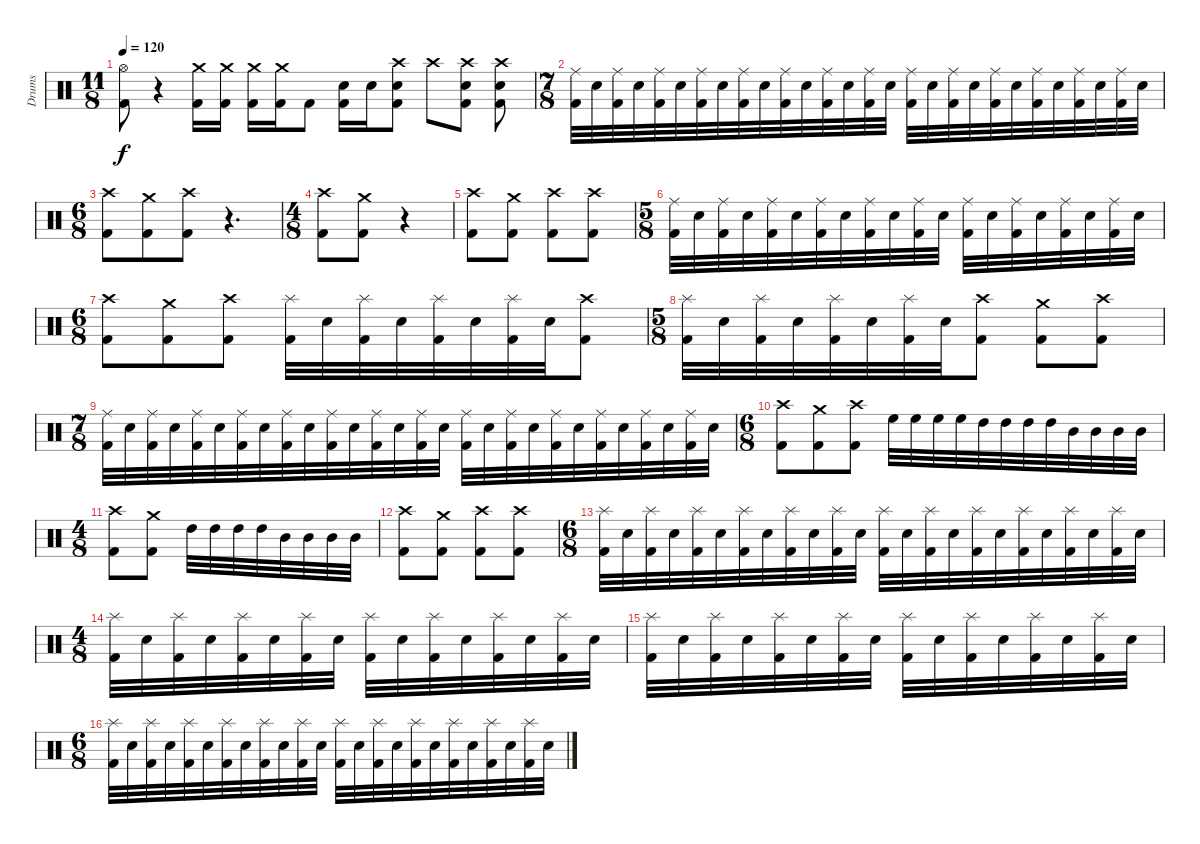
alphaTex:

\track ("Drums" "Drums") {instrument percussion}
\staff {score}
\articulation defaults
\ts (11 8)
\tempo 120
\clef neutral
\ks c
("Hi-Hat (open)" "Kick (hit) 2").8{dy f} r.4 ("Crash medium (hit)" "Kick (hit) 2").16 ("Crash medium (hit)" "Kick (hit) 2").16 ("Crash medium (hit)" "Kick (hit) 2").16 ("Crash medium (hit)" "Kick (hit) 2").16 "Kick (hit) 2".8 ("Snare (hit) 2" "Kick (hit) 2").16 "Snare (hit) 2".16 ("Crash high (hit)" "Snare (hit) 2" "Kick (hit) 2").8 "Crash high (hit)".8 ("Crash high (hit)" "Snare (hit) 2" "Kick (hit) 2").8 ("Crash high (hit)" "Snare (hit) 2" "Kick (hit) 2").8 |
\ts (7 8)
("Ride (middle)" "Kick (hit) 2").32 "Snare (hit) 2".32 ("Ride (middle)" "Kick (hit) 2").32 "Snare (hit) 2".32 ("Ride (middle)" "Kick (hit) 2").32 "Snare (hit) 2".32 ("Ride (middle)" "Kick (hit) 2").32 "Snare (hit) 2".32 ("Ride (middle)" "Kick (hit) 2").32 "Snare (hit) 2".32 ("Ride (middle)" "Kick (hit) 2").32 "Snare (hit) 2".32 ("Ride (middle)" "Kick (hit) 2").32 "Snare (hit) 2".32 ("Ride (middle)" "Kick (hit) 2").32 "Snare (hit) 2".32 ("Ride (middle)" "Kick (hit) 2").32 "Snare (hit) 2".32 ("Ride (middle)" "Kick (hit) 2").32 "Snare (hit) 2".32 ("Ride (middle)" "Kick (hit) 2").32 "Snare (hit) 2".32 ("Ride (middle)" "Kick (hit) 2").32 "Snare (hit) 2".32 ("Ride (middle)" "Kick (hit) 2").32 "Snare (hit) 2".32 ("Ride (middle)" "Kick (hit) 2").32 "Snare (hit) 2".32 |
\ts (6 8)
("Crash high (hit)" "Kick (hit) 2").8 ("Crash medium (hit)" "Kick (hit) 2").8 ("Crash high (hit)" "Kick (hit) 2").8 r.4{d} |
\ts (4 8)
("Crash high (hit)" "Kick (hit) 2").8 ("Crash medium (hit)" "Kick (hit) 2").8 r.4 |
("Crash high (hit)" "Kick (hit) 2").8 ("Crash medium (hit)" "Kick (hit) 2").8 ("Crash high (hit)" "Kick (hit) 2").8 ("Crash high (hit)" "Kick (hit) 2").8 |
\ts (5 8)
("Ride (middle)" "Kick (hit) 2").32 "Snare (hit) 2".32 ("Ride (middle)" "Kick (hit) 2").32 "Snare (hit) 2".32 ("Ride (middle)" "Kick (hit) 2").32 "Snare (hit) 2".32 ("Ride (middle)" "Kick (hit) 2").32 "Snare (hit) 2".32 ("Ride (middle)" "Kick (hit) 2").32 "Snare (hit) 2".32 ("Ride (middle)" "Kick (hit) 2").32 "Snare (hit) 2".32 ("Ride (middle)" "Kick (hit) 2").32 "Snare (hit) 2".32 ("Ride (middle)" "Kick (hit) 2").32 "Snare (hit) 2".32 ("Ride (middle)" "Kick (hit) 2").32 "Snare (hit) 2".32 ("Ride (middle)" "Kick (hit) 2").32 "Snare (hit) 2".32 |
\ts (6 8)
("Crash high (hit)" "Kick (hit) 2").8 ("Crash medium (hit)" "Kick (hit) 2").8 ("Crash high (hit)" "Kick (hit) 2").8 ("Splash (hit)" "Kick (hit) 2").32 "Snare (hit) 2".32 ("Splash (hit)" "Kick (hit) 2").32 "Snare (hit) 2".32 ("Splash (hit)" "Kick (hit) 2").32 "Snare (hit) 2".32 ("Splash (hit)" "Kick (hit) 2").32 "Snare (hit) 2".32 ("Crash high (hit)" "Kick (hit) 2").8 |
\ts (5 8)
("Splash (hit)" "Kick (hit) 2").32 "Snare (hit) 2".32 ("Splash (hit)" "Kick (hit) 2").32 "Snare (hit) 2".32 ("Splash (hit)" "Kick (hit) 2").32 "Snare (hit) 2".32 ("Splash (hit)" "Kick (hit) 2").32 "Snare (hit) 2".32 ("Crash high (hit)" "Kick (hit) 2").8 ("Crash medium (hit)" "Kick (hit) 2").8 ("Crash high (hit)" "Kick (hit) 2").8 |
\ts (7 8)
("Ride (middle)" "Kick (hit) 2").32 "Snare (hit) 2".32 ("Ride (middle)" "Kick (hit) 2").32 "Snare (hit) 2".32 ("Ride (middle)" "Kick (hit) 2").32 "Snare (hit) 2".32 ("Ride (middle)" "Kick (hit) 2").32 "Snare (hit) 2".32 ("Ride (middle)" "Kick (hit) 2").32 "Snare (hit) 2".32 ("Ride (middle)" "Kick (hit) 2").32 "Snare (hit) 2".32 ("Ride (middle)" "Kick (hit) 2").32 "Snare (hit) 2".32 ("Ride (middle)" "Kick (hit) 2").32 "Snare (hit) 2".32 ("Ride (middle)" "Kick (hit) 2").32 "Snare (hit) 2".32 ("Ride (middle)" "Kick (hit) 2").32 "Snare (hit) 2".32 ("Ride (middle)" "Kick (hit) 2").32 "Snare (hit) 2".32 ("Ride (middle)" "Kick (hit) 2").32 "Snare (hit) 2".32 ("Ride (middle)" "Kick (hit) 2").32 "Snare (hit) 2".32 ("Ride (middle)" "Kick (hit) 2").32 "Snare (hit) 2".32 |
\ts (6 8)
("Crash high (hit)" "Kick (hit) 2").8 ("Crash medium (hit)" "Kick (hit) 2").8 ("Crash high (hit)" "Kick (hit) 2").8 "High Floor Tom (hit)".32 "High Floor Tom (hit)".32 "High Floor Tom (hit)".32 "High Floor Tom (hit)".32 "High Tom (hit)".32 "High Tom (hit)".32 "High Tom (hit)".32 "High Tom (hit)".32 "Mid Tom (hit)".32 "Mid Tom (hit)".32 "Mid Tom (hit)".32 "Mid Tom (hit)".32 |
\ts (4 8)
("Crash high (hit)" "Kick (hit) 2").8 ("Crash medium (hit)" "Kick (hit) 2").8 "High Tom (hit)".32 "High Tom (hit)".32 "High Tom (hit)".32 "High Tom (hit)".32 "Mid Tom (hit)".32 "Mid Tom (hit)".32 "Mid Tom (hit)".32 "Mid Tom (hit)".32 |
("Crash high (hit)" "Kick (hit) 2").8 ("Crash medium (hit)" "Kick (hit) 2").8 ("Crash high (hit)" "Kick (hit) 2").8 ("Crash high (hit)" "Kick (hit) 2").8 |
\ts (6 8)
("Splash (hit)" "Kick (hit) 2").32 "Snare (hit) 2".32 ("Splash (hit)" "Kick (hit) 2").32 "Snare (hit) 2".32 ("Splash (hit)" "Kick (hit) 2").32 "Snare (hit) 2".32 ("Splash (hit)" "Kick (hit) 2").32 "Snare (hit) 2".32 ("Splash (hit)" "Kick (hit) 2").32 "Snare (hit) 2".32 ("Splash (hit)" "Kick (hit) 2").32 "Snare (hit) 2".32 ("Splash (hit)" "Kick (hit) 2").32 "Snare (hit) 2".32 ("Splash (hit)" "Kick (hit) 2").32 "Snare (hit) 2".32 ("Splash (hit)" "Kick (hit) 2").32 "Snare (hit) 2".32 ("Splash (hit)" "Kick (hit) 2").32 "Snare (hit) 2".32 ("Splash (hit)" "Kick (hit) 2").32 "Snare (hit) 2".32 ("Splash (hit)" "Kick (hit) 2").32 "Snare (hit) 2".32 |
\ts (4 8)
("Splash (hit)" "Kick (hit) 2").32 "Snare (hit) 2".32 ("Splash (hit)" "Kick (hit) 2").32 "Snare (hit) 2".32 ("Splash (hit)" "Kick (hit) 2").32 "Snare (hit) 2".32 ("Splash (hit)" "Kick (hit) 2").32 "Snare (hit) 2".32 ("Splash (hit)" "Kick (hit) 2").32 "Snare (hit) 2".32 ("Splash (hit)" "Kick (hit) 2").32 "Snare (hit) 2".32 ("Splash (hit)" "Kick (hit) 2").32 "Snare (hit) 2".32 ("Splash (hit)" "Kick (hit) 2").32 "Snare (hit) 2".32 |
("Splash (hit)" "Kick (hit) 2").32 "Snare (hit) 2".32 ("Splash (hit)" "Kick (hit) 2").32 "Snare (hit) 2".32 ("Splash (hit)" "Kick (hit) 2").32 "Snare (hit) 2".32 ("Splash (hit)" "Kick (hit) 2").32 "Snare (hit) 2".32 ("Splash (hit)" "Kick (hit) 2").32 "Snare (hit) 2".32 ("Splash (hit)" "Kick (hit) 2").32 "Snare (hit) 2".32 ("Splash (hit)" "Kick (hit) 2").32 "Snare (hit) 2".32 ("Splash (hit)" "Kick (hit) 2").32 "Snare (hit) 2".32 |
\ts (6 8)
("Splash (hit)" "Kick (hit) 2").32 "Snare (hit) 2".32 ("Splash (hit)" "Kick (hit) 2").32 "Snare (hit) 2".32 ("Splash (hit)" "Kick (hit) 2").32 "Snare (hit) 2".32 ("Splash (hit)" "Kick (hit) 2").32 "Snare (hit) 2".32 ("Splash (hit)" "Kick (hit) 2").32 "Snare (hit) 2".32 ("Splash (hit)" "Kick (hit) 2").32 "Snare (hit) 2".32 ("Splash (hit)" "Kick (hit) 2").32 "Snare (hit) 2".32 ("Splash (hit)" "Kick (hit) 2").32 "Snare (hit) 2".32 ("Splash (hit)" "Kick (hit) 2").32 "Snare (hit) 2".32 ("Splash (hit)" "Kick (hit) 2").32 "Snare (hit) 2".32 ("Splash (hit)" "Kick (hit) 2").32 "Snare (hit) 2".32 ("Splash (hit)" "Kick (hit) 2").32 "Snare (hit) 2".32
